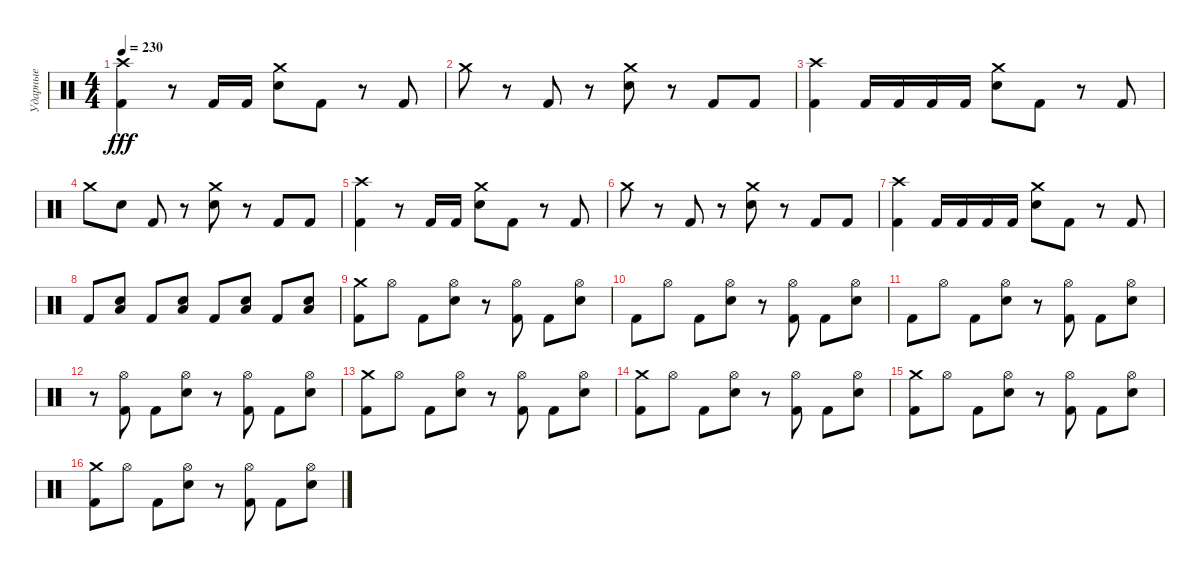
\track ("Ударные" "Ударные") {instrument percussion}
\staff {score}
\articulation defaults
\ts (4 4)
\tempo 230
\clef neutral
\ks c
("Kick (hit) 2" "Crash high (hit)").4{dy fff} r.8 "Kick (hit) 2".16 "Kick (hit) 2".16 ("Electric Snare (hit)" "Crash medium (hit)").8 "Kick (hit) 2".8 r.8 "Kick (hit) 2".8 |
"Crash medium (hit)".8 r.8 "Kick (hit) 2".8 r.8 ("Electric Snare (hit)" "Crash medium (hit)").8 r.8 "Kick (hit) 2".8 "Kick (hit) 2".8 |
("Kick (hit) 2" "Crash high (hit)").4 "Kick (hit) 2".16 "Kick (hit) 2".16 "Kick (hit) 2".16 "Kick (hit) 2".16 ("Electric Snare (hit)" "Crash medium (hit)").8 "Kick (hit) 2".8 r.8 "Kick (hit) 2".8 |
"Crash medium (hit)".8 "Electric Snare (hit)".8 "Kick (hit) 2".8 r.8 ("Electric Snare (hit)" "Crash medium (hit)").8 r.8 "Kick (hit) 2".8 "Kick (hit) 2".8 |
("Kick (hit) 2" "Crash high (hit)").4 r.8 "Kick (hit) 2".16 "Kick (hit) 2".16 ("Electric Snare (hit)" "Crash medium (hit)").8 "Kick (hit) 2".8 r.8 "Kick (hit) 2".8 |
"Crash medium (hit)".8 r.8 "Kick (hit) 2".8 r.8 ("Electric Snare (hit)" "Crash medium (hit)").8 r.8 "Kick (hit) 2".8 "Kick (hit) 2".8 |
("Kick (hit) 2" "Crash high (hit)").4 "Kick (hit) 2".16 "Kick (hit) 2".16 "Kick (hit) 2".16 "Kick (hit) 2".16 ("Electric Snare (hit)" "Crash medium (hit)").8 "Kick (hit) 2".8 r.8 "Kick (hit) 2".8 |
"Kick (hit) 2".8 ("Electric Snare (hit)" "Low Tom (hit)").8 "Kick (hit) 2".8 ("Electric Snare (hit)" "Low Tom (hit)").8 "Kick (hit) 2".8 ("Electric Snare (hit)" "Low Tom (hit)").8 "Kick (hit) 2".8 ("Electric Snare (hit)" "Low Tom (hit)").8 |
("Kick (hit) 2" "Crash medium (hit)").8 "Hi-Hat (open)".8 "Kick (hit) 2".8 ("Electric Snare (hit)" "Hi-Hat (open)").8 r.8 ("Kick (hit) 2" "Hi-Hat (open)").8 "Kick (hit) 2".8 ("Electric Snare (hit)" "Hi-Hat (open)").8 |
"Kick (hit) 2".8 "Hi-Hat (open)".8 "Kick (hit) 2".8 ("Electric Snare (hit)" "Hi-Hat (open)").8 r.8 ("Kick (hit) 2" "Hi-Hat (open)").8 "Kick (hit) 2".8 ("Electric Snare (hit)" "Hi-Hat (open)").8 |
"Kick (hit) 2".8 "Hi-Hat (open)".8 "Kick (hit) 2".8 ("Electric Snare (hit)" "Hi-Hat (open)").8 r.8 ("Kick (hit) 2" "Hi-Hat (open)").8 "Kick (hit) 2".8 ("Electric Snare (hit)" "Hi-Hat (open)").8 |
r.8 ("Kick (hit) 2" "Hi-Hat (open)").8 "Kick (hit) 2".8 ("Electric Snare (hit)" "Hi-Hat (open)").8 r.8 ("Kick (hit) 2" "Hi-Hat (open)").8 "Kick (hit) 2".8 ("Electric Snare (hit)" "Hi-Hat (open)").8 |
("Kick (hit) 2" "Crash medium (hit)").8 "Hi-Hat (open)".8 "Kick (hit) 2".8 ("Electric Snare (hit)" "Hi-Hat (open)").8 r.8 ("Kick (hit) 2" "Hi-Hat (open)").8 "Kick (hit) 2".8 ("Electric Snare (hit)" "Hi-Hat (open)").8 |
("Kick (hit) 2" "Crash medium (hit)").8 "Hi-Hat (open)".8 "Kick (hit) 2".8 ("Electric Snare (hit)" "Hi-Hat (open)").8 r.8 ("Kick (hit) 2" "Hi-Hat (open)").8 "Kick (hit) 2".8 ("Electric Snare (hit)" "Hi-Hat (open)").8 |
("Kick (hit) 2" "Crash medium (hit)").8 "Hi-Hat (open)".8 "Kick (hit) 2".8 ("Electric Snare (hit)" "Hi-Hat (open)").8 r.8 ("Kick (hit) 2" "Hi-Hat (open)").8 "Kick (hit) 2".8 ("Electric Snare (hit)" "Hi-Hat (open)").8 |
("Kick (hit) 2" "Crash medium (hit)").8 "Hi-Hat (open)".8 "Kick (hit) 2".8 ("Electric Snare (hit)" "Hi-Hat (open)").8 r.8 ("Kick (hit) 2" "Hi-Hat (open)").8 "Kick (hit) 2".8 ("Electric Snare (hit)" "Hi-Hat (open)").8
